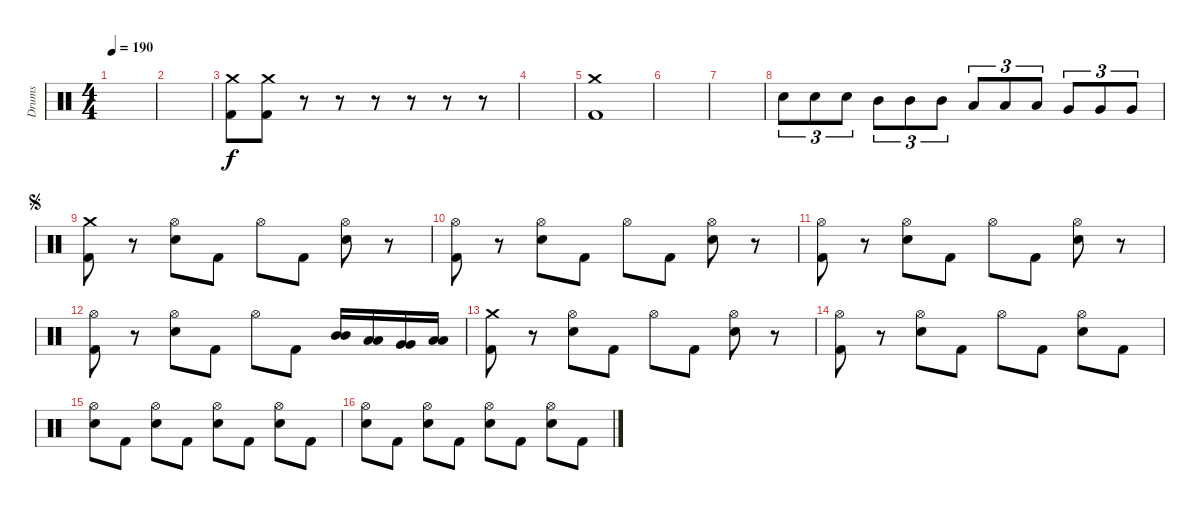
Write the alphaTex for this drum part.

\track ("Drums" "Drums") {instrument percussion}
\staff {score}
\articulation defaults
\ts (4 4)
\tempo 190
\clef neutral
\ks c
|
|
("Crash medium (hit)" "Kick (hit) 2").8 ("Crash medium (hit)" "Kick (hit) 2").8 r.8 r.8 r.8 r.8 r.8 r.8 |
|
("Crash medium (hit)" "Kick (hit) 2").1 |
|
|
"Electric Snare (hit)".8{tu (3 2)} "Electric Snare (hit)".8{tu (3 2)} "Electric Snare (hit)".8{tu (3 2)} "Mid Tom (hit)".8{tu (3 2)} "Mid Tom (hit)".8{tu (3 2)} "Mid Tom (hit)".8{tu (3 2)} "Low Tom (hit)".8{tu (3 2)} "Low Tom (hit)".8{tu (3 2)} "Low Tom (hit)".8{tu (3 2)} "Very Low Tom (hit)".8{tu (3 2)} "Very Low Tom (hit)".8{tu (3 2)} "Very Low Tom (hit)".8{tu (3 2)} |
\jump segno
("Crash medium (hit)" "Kick (hit) 2").8 r.8 ("Hi-Hat (open)" "Electric Snare (hit)").8 "Kick (hit) 2".8 "Hi-Hat (open)".8 "Kick (hit) 2".8 ("Hi-Hat (open)" "Electric Snare (hit)").8 r.8 |
("Hi-Hat (open)" "Kick (hit) 2").8 r.8 ("Hi-Hat (open)" "Electric Snare (hit)").8 "Kick (hit) 2".8 "Hi-Hat (open)".8 "Kick (hit) 2".8 ("Hi-Hat (open)" "Electric Snare (hit)").8 r.8 |
("Hi-Hat (open)" "Kick (hit) 2").8 r.8 ("Hi-Hat (open)" "Electric Snare (hit)").8 "Kick (hit) 2".8 "Hi-Hat (open)".8 "Kick (hit) 2".8 ("Hi-Hat (open)" "Electric Snare (hit)").8 r.8 |
("Hi-Hat (open)" "Kick (hit) 2").8 r.8 ("Hi-Hat (open)" "Electric Snare (hit)").8 "Kick (hit) 2".8 "Hi-Hat (open)".8 "Kick (hit) 2".8 ("Mid Tom (hit)" "Mid Tom (hit)").16 ("Low Tom (hit)" "Low Tom (hit)").16 ("Very Low Tom (hit)" "Very Low Tom (hit)").16 ("Low Floor Tom (hit)" "Low Floor Tom (hit)").16 |
("Crash medium (hit)" "Kick (hit) 2").8 r.8 ("Hi-Hat (open)" "Electric Snare (hit)").8 "Kick (hit) 2".8 "Hi-Hat (open)".8 "Kick (hit) 2".8 ("Hi-Hat (open)" "Electric Snare (hit)").8 r.8 |
("Hi-Hat (open)" "Kick (hit) 2").8 r.8 ("Hi-Hat (open)" "Electric Snare (hit)").8 "Kick (hit) 2".8 "Hi-Hat (open)".8 "Kick (hit) 2".8 ("Hi-Hat (open)" "Electric Snare (hit)").8 "Kick (hit) 2".8 |
("Hi-Hat (open)" "Electric Snare (hit)").8 "Kick (hit) 2".8 ("Hi-Hat (open)" "Electric Snare (hit)").8 "Kick (hit) 2".8 ("Hi-Hat (open)" "Electric Snare (hit)").8 "Kick (hit) 2".8 ("Hi-Hat (open)" "Electric Snare (hit)").8 "Kick (hit) 2".8 |
("Hi-Hat (open)" "Electric Snare (hit)").8 "Kick (hit) 2".8 ("Hi-Hat (open)" "Electric Snare (hit)").8 "Kick (hit) 2".8 ("Hi-Hat (open)" "Electric Snare (hit)").8 "Kick (hit) 2".8 ("Hi-Hat (open)" "Electric Snare (hit)").8 "Kick (hit) 2".8
